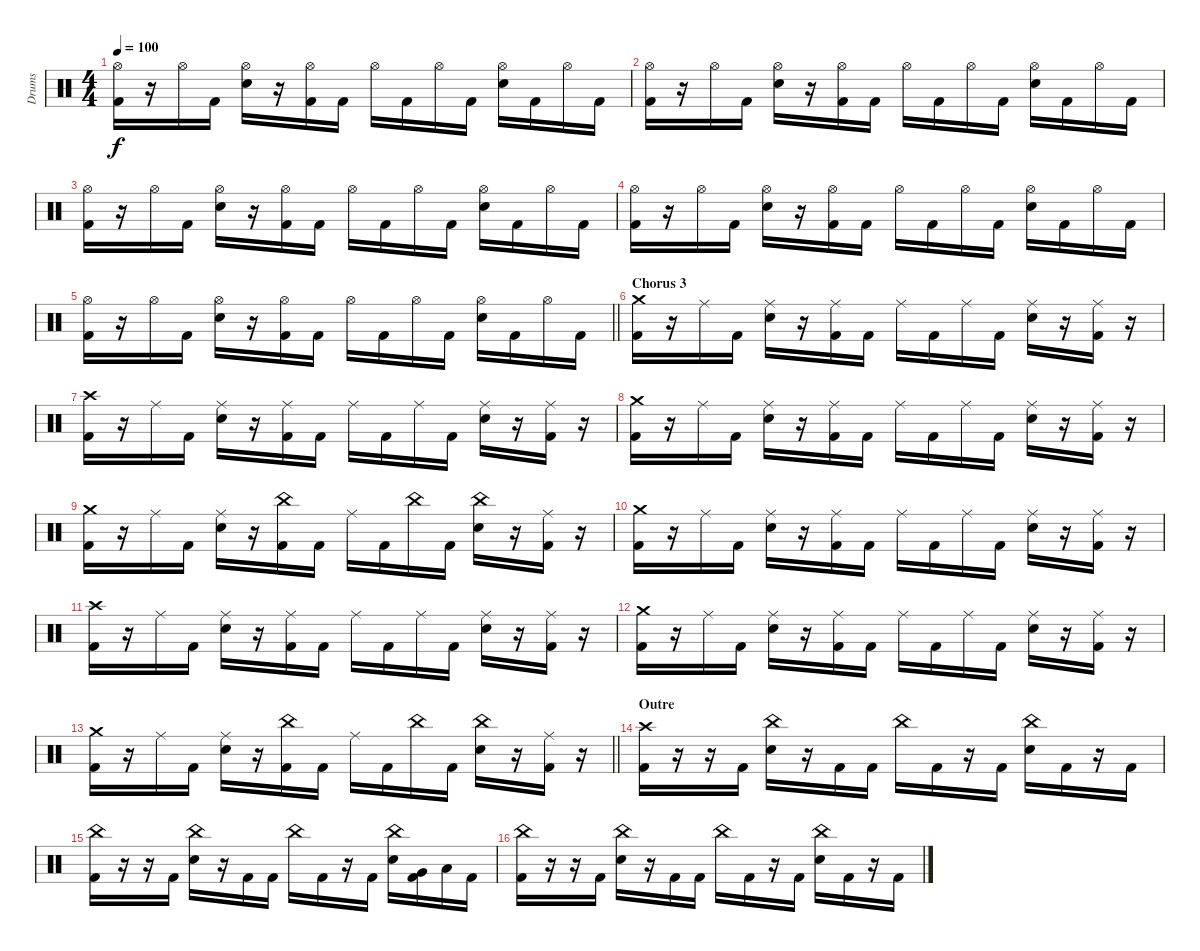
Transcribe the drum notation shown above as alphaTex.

\track ("Drums" "Drums") {instrument percussion}
\staff {score}
\articulation defaults
\ts (4 4)
\tempo 100
\clef neutral
\ks c
("Hi-Hat (open)" "Kick (hit) 2").16{dy f} r.16 "Hi-Hat (open)".16 "Kick (hit) 2".16 ("Hi-Hat (open)" "Electric Snare (hit)").16 r.16 ("Hi-Hat (open)" "Kick (hit) 2").16 "Kick (hit) 2".16 "Hi-Hat (open)".16 "Kick (hit) 2".16 "Hi-Hat (open)".16 "Kick (hit) 2".16 ("Hi-Hat (open)" "Electric Snare (hit)").16 "Kick (hit) 2".16 "Hi-Hat (open)".16 "Kick (hit) 2".16 |
("Hi-Hat (open)" "Kick (hit) 2").16 r.16 "Hi-Hat (open)".16 "Kick (hit) 2".16 ("Hi-Hat (open)" "Electric Snare (hit)").16 r.16 ("Hi-Hat (open)" "Kick (hit) 2").16 "Kick (hit) 2".16 "Hi-Hat (open)".16 "Kick (hit) 2".16 "Hi-Hat (open)".16 "Kick (hit) 2".16 ("Hi-Hat (open)" "Electric Snare (hit)").16 "Kick (hit) 2".16 "Hi-Hat (open)".16 "Kick (hit) 2".16 |
("Hi-Hat (open)" "Kick (hit) 2").16 r.16 "Hi-Hat (open)".16 "Kick (hit) 2".16 ("Hi-Hat (open)" "Electric Snare (hit)").16 r.16 ("Hi-Hat (open)" "Kick (hit) 2").16 "Kick (hit) 2".16 "Hi-Hat (open)".16 "Kick (hit) 2".16 "Hi-Hat (open)".16 "Kick (hit) 2".16 ("Hi-Hat (open)" "Electric Snare (hit)").16 "Kick (hit) 2".16 "Hi-Hat (open)".16 "Kick (hit) 2".16 |
("Hi-Hat (open)" "Kick (hit) 2").16 r.16 "Hi-Hat (open)".16 "Kick (hit) 2".16 ("Hi-Hat (open)" "Electric Snare (hit)").16 r.16 ("Hi-Hat (open)" "Kick (hit) 2").16 "Kick (hit) 2".16 "Hi-Hat (open)".16 "Kick (hit) 2".16 "Hi-Hat (open)".16 "Kick (hit) 2".16 ("Hi-Hat (open)" "Electric Snare (hit)").16 "Kick (hit) 2".16 "Hi-Hat (open)".16 "Kick (hit) 2".16 |
\barLineRight lightlight
("Hi-Hat (open)" "Kick (hit) 2").16 r.16 "Hi-Hat (open)".16 "Kick (hit) 2".16 ("Hi-Hat (open)" "Electric Snare (hit)").16 r.16 ("Hi-Hat (open)" "Kick (hit) 2").16 "Kick (hit) 2".16 "Hi-Hat (open)".16 "Kick (hit) 2".16 "Hi-Hat (open)".16 "Kick (hit) 2".16 ("Hi-Hat (open)" "Electric Snare (hit)").16 "Kick (hit) 2".16 "Hi-Hat (open)".16 "Kick (hit) 2".16 |
\section ("" "Chorus 3")
("Crash medium (hit)" "Kick (hit) 2").16 r.16 "Ride (middle)".16 "Kick (hit) 2".16 ("Ride (middle)" "Electric Snare (hit)").16 r.16 ("Ride (middle)" "Kick (hit) 2").16 "Kick (hit) 2".16 "Ride (middle)".16 "Kick (hit) 2".16 "Ride (middle)".16 "Kick (hit) 2".16 ("Ride (middle)" "Electric Snare (hit)").16 r.16 ("Ride (middle)" "Kick (hit) 2").16 r.16 |
("Crash high (hit)" "Kick (hit) 2").16 r.16 "Ride (middle)".16 "Kick (hit) 2".16 ("Ride (middle)" "Electric Snare (hit)").16 r.16 ("Ride (middle)" "Kick (hit) 2").16 "Kick (hit) 2".16 "Ride (middle)".16 "Kick (hit) 2".16 "Ride (middle)".16 "Kick (hit) 2".16 ("Ride (middle)" "Electric Snare (hit)").16 r.16 ("Ride (middle)" "Kick (hit) 2").16 r.16 |
("Crash medium (hit)" "Kick (hit) 2").16 r.16 "Ride (middle)".16 "Kick (hit) 2".16 ("Ride (middle)" "Electric Snare (hit)").16 r.16 ("Ride (middle)" "Kick (hit) 2").16 "Kick (hit) 2".16 "Ride (middle)".16 "Kick (hit) 2".16 "Ride (middle)".16 "Kick (hit) 2".16 ("Ride (middle)" "Electric Snare (hit)").16 r.16 ("Ride (middle)" "Kick (hit) 2").16 r.16 |
("Crash medium (hit)" "Kick (hit) 2").16 r.16 "Ride (middle)".16 "Kick (hit) 2".16 ("Ride (middle)" "Electric Snare (hit)").16 r.16 ("China (hit)" "Kick (hit) 2").16 "Kick (hit) 2".16 "Ride (middle)".16 "Kick (hit) 2".16 "China (hit)".16 "Kick (hit) 2".16 ("China (hit)" "Electric Snare (hit)").16 r.16 ("Ride (middle)" "Kick (hit) 2").16 r.16 |
("Crash medium (hit)" "Kick (hit) 2").16 r.16 "Ride (middle)".16 "Kick (hit) 2".16 ("Ride (middle)" "Electric Snare (hit)").16 r.16 ("Ride (middle)" "Kick (hit) 2").16 "Kick (hit) 2".16 "Ride (middle)".16 "Kick (hit) 2".16 "Ride (middle)".16 "Kick (hit) 2".16 ("Ride (middle)" "Electric Snare (hit)").16 r.16 ("Ride (middle)" "Kick (hit) 2").16 r.16 |
("Crash high (hit)" "Kick (hit) 2").16 r.16 "Ride (middle)".16 "Kick (hit) 2".16 ("Ride (middle)" "Electric Snare (hit)").16 r.16 ("Ride (middle)" "Kick (hit) 2").16 "Kick (hit) 2".16 "Ride (middle)".16 "Kick (hit) 2".16 "Ride (middle)".16 "Kick (hit) 2".16 ("Ride (middle)" "Electric Snare (hit)").16 r.16 ("Ride (middle)" "Kick (hit) 2").16 r.16 |
("Crash medium (hit)" "Kick (hit) 2").16 r.16 "Ride (middle)".16 "Kick (hit) 2".16 ("Ride (middle)" "Electric Snare (hit)").16 r.16 ("Ride (middle)" "Kick (hit) 2").16 "Kick (hit) 2".16 "Ride (middle)".16 "Kick (hit) 2".16 "Ride (middle)".16 "Kick (hit) 2".16 ("Ride (middle)" "Electric Snare (hit)").16 r.16 ("Ride (middle)" "Kick (hit) 2").16 r.16 |
\barLineRight lightlight
("Crash medium (hit)" "Kick (hit) 2").16 r.16 "Ride (middle)".16 "Kick (hit) 2".16 ("Ride (middle)" "Electric Snare (hit)").16 r.16 ("China (hit)" "Kick (hit) 2").16 "Kick (hit) 2".16 "Ride (middle)".16 "Kick (hit) 2".16 "China (hit)".16 "Kick (hit) 2".16 ("China (hit)" "Electric Snare (hit)").16 r.16 ("Ride (middle)" "Kick (hit) 2").16 r.16 |
\section ("" "Outre")
("Crash high (hit)" "Kick (hit) 2").16 r.16 r.16 "Kick (hit) 2".16 ("China (hit)" "Electric Snare (hit)").16 r.16 "Kick (hit) 2".16 "Kick (hit) 2".16 "China (hit)".16 "Kick (hit) 2".16 r.16 "Kick (hit) 2".16 ("China (hit)" "Electric Snare (hit)").16 "Kick (hit) 2".16 r.16 "Kick (hit) 2".16 |
("China (hit)" "Kick (hit) 2").16 r.16 r.16 "Kick (hit) 2".16 ("China (hit)" "Electric Snare (hit)").16 r.16 "Kick (hit) 2".16 "Kick (hit) 2".16 "China (hit)".16 "Kick (hit) 2".16 r.16 "Kick (hit) 2".16 ("China (hit)" "Electric Snare (hit)").16 ("Very Low Tom (hit)" "Kick (hit) 2").16 "Low Floor Tom (hit)".16 "Kick (hit) 2".16 |
("China (hit)" "Kick (hit) 2").16 r.16 r.16 "Kick (hit) 2".16 ("China (hit)" "Electric Snare (hit)").16 r.16 "Kick (hit) 2".16 "Kick (hit) 2".16 "China (hit)".16 "Kick (hit) 2".16 r.16 "Kick (hit) 2".16 ("China (hit)" "Electric Snare (hit)").16 "Kick (hit) 2".16 r.16 "Kick (hit) 2".16
